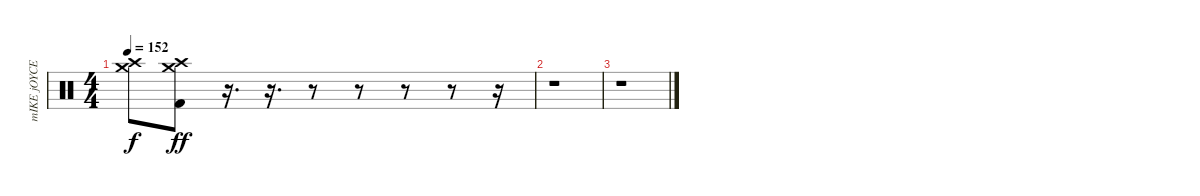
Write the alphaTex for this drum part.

\track ("mIKE jOYCE" "mIKE jOYCE") {instrument percussion}
\staff {score}
\articulation defaults
\ts (4 4)
\tempo 152
\clef neutral
\ks c
("Crash high (hit)"{t} "Crash medium (hit)"{t}).8{dy f} ("Crash high (hit)" "Crash medium (hit)" "Kick (hit) 2").8{dy ff} r.16{d} r.16{d} r.8 r.8 r.8 r.8 r.16 |
r.1 |
r.1
